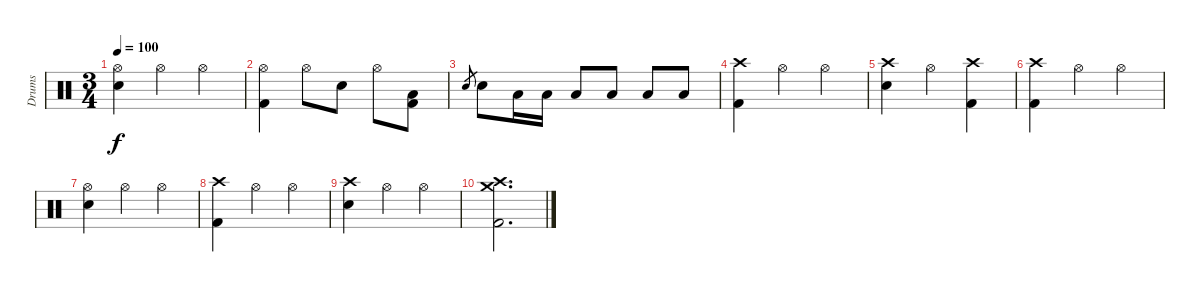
\track ("Drums" "Drums") {instrument percussion}
\staff {score}
\articulation defaults
\ts (3 4)
\tempo 100
\clef neutral
\ks c
("Hi-Hat (open)" "Snare (hit) 2").4{dy f} "Hi-Hat (open)".4 "Hi-Hat (open)".4 |
("Hi-Hat (open)" "Kick (hit) 2").4 "Hi-Hat (open)".8 "Electric Snare (hit)".8 "Hi-Hat (open)".8 ("Low Floor Tom (hit)" "Kick (hit) 2").8 |
"Electric Snare (hit)".8{gr} "Electric Snare (hit)".8 "Low Tom (hit)".16 "Low Tom (hit)".16 "Low Tom (hit)".8 "Low Tom (hit)".8 "Low Tom (hit)".8 "Low Tom (hit)".8 |
("Crash high (hit)" "Kick (hit) 2").4 "Hi-Hat (open)".4 "Hi-Hat (open)".4 |
("Crash high (hit)" "Electric Snare (hit)").4 "Hi-Hat (open)".4 ("Crash high (hit)" "Kick (hit) 2").4 |
("Crash high (hit)" "Kick (hit) 2").4 "Hi-Hat (open)".4 "Hi-Hat (open)".4 |
("Hi-Hat (open)" "Snare (hit) 2").4 "Hi-Hat (open)".4 "Hi-Hat (open)".4 |
("Crash high (hit)" "Kick (hit) 2").4 "Hi-Hat (open)".4 "Hi-Hat (open)".4 |
("Crash high (hit)" "Electric Snare (hit)").4 "Hi-Hat (open)".4 "Hi-Hat (open)".4 |
("Crash high (hit)" "Crash medium (hit)" "Kick (hit) 2").2{d}
